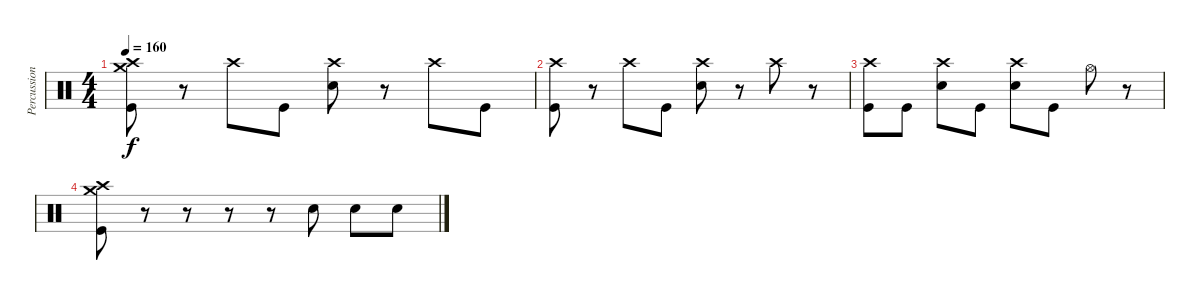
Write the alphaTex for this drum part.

\track ("Percussion" "Percussion") {instrument percussion}
\staff {score}
\articulation defaults
\ts (4 4)
\tempo 160
\clef neutral
\ks c
("Crash high (hit)" "Crash medium (hit)" "Kick (hit)").8{dy f} r.8 "Crash high (hit)".8 "Kick (hit)".8 ("Crash high (hit)" "Snare (hit) 2").8 r.8 "Crash high (hit)".8 "Kick (hit)".8 |
("Crash high (hit)" "Kick (hit)").8 r.8 "Crash high (hit)".8 "Kick (hit)".8 ("Crash high (hit)" "Snare (hit) 2").8 r.8 "Crash high (hit)".8 r.8 |
("Crash high (hit)" "Kick (hit)").8 "Kick (hit)".8 ("Crash high (hit)" "Snare (hit) 2").8 "Kick (hit)".8 ("Crash high (hit)" "Snare (hit) 2").8 "Kick (hit)".8 "Hi-Hat (open)".8 r.8 |
("Crash medium (hit)" "Crash high (hit)" "Kick (hit)").8 r.8 r.8 r.8 r.8 "Hand Clap (hit)".8 "Hand Clap (hit)".8 "Hand Clap (hit)".8
